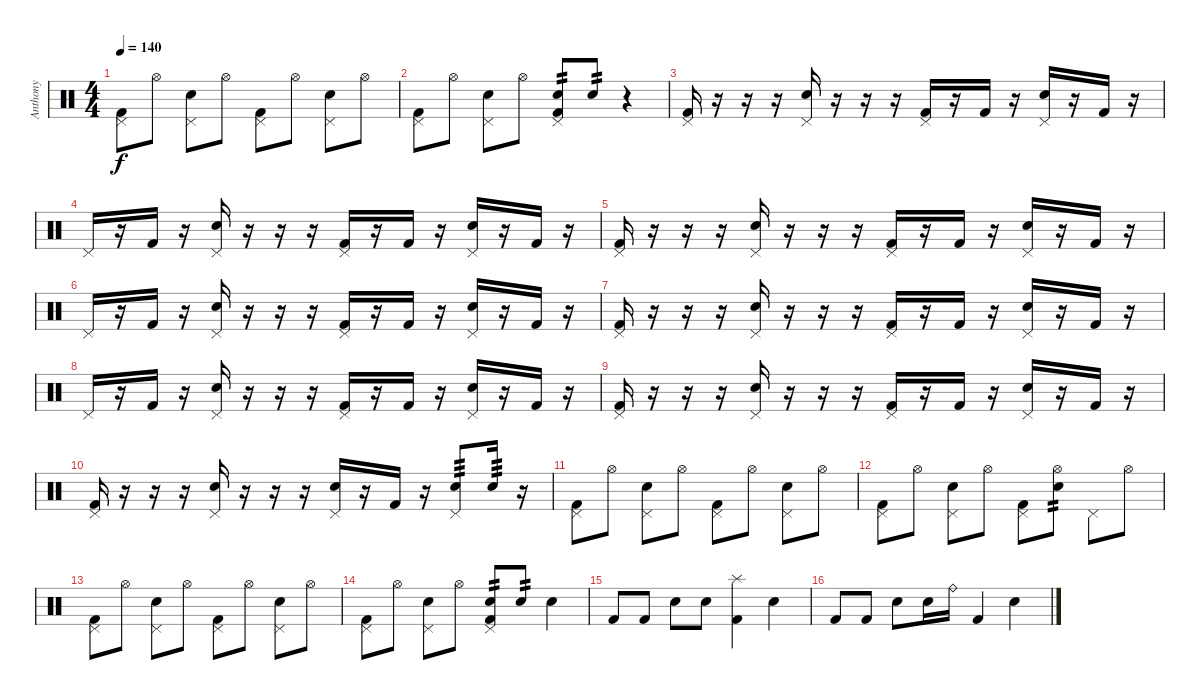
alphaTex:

\track ("Anthony" "Anthony") {instrument percussion}
\staff {score}
\articulation defaults
\ts (4 4)
\tempo 140
\clef neutral
\ks c
("Pedal Hi-Hat (hit)" "Kick (hit) 2").8{dy f} "Hi-Hat (open)".8 ("Pedal Hi-Hat (hit)" "Snare (hit) 2").8 "Hi-Hat (open)".8 ("Pedal Hi-Hat (hit)" "Kick (hit) 2").8 "Hi-Hat (open)".8 ("Pedal Hi-Hat (hit)" "Snare (hit) 2").8 "Hi-Hat (open)".8 |
("Pedal Hi-Hat (hit)" "Kick (hit) 2").8 "Hi-Hat (open)".8 ("Pedal Hi-Hat (hit)" "Snare (hit) 2").8 "Hi-Hat (open)".8 ("Pedal Hi-Hat (hit)" "Snare (hit) 2" "Kick (hit) 2").8{tp 2} "Snare (hit) 2".8{tp 2} r.4 |
("Pedal Hi-Hat (hit)" "Kick (hit) 2").16 r.16 r.16 r.16 ("Pedal Hi-Hat (hit)" "Snare (hit) 2").16 r.16 r.16 r.16 ("Pedal Hi-Hat (hit)" "Kick (hit) 2").16 r.16 "Kick (hit) 2".16 r.16 ("Pedal Hi-Hat (hit)" "Snare (hit) 2").16 r.16 "Kick (hit) 2".16 r.16 |
"Pedal Hi-Hat (hit)".16 r.16 "Kick (hit) 2".16 r.16 ("Pedal Hi-Hat (hit)" "Snare (hit) 2").16 r.16 r.16 r.16 ("Pedal Hi-Hat (hit)" "Kick (hit) 2").16 r.16 "Kick (hit) 2".16 r.16 ("Pedal Hi-Hat (hit)" "Snare (hit) 2").16 r.16 "Kick (hit) 2".16 r.16 |
("Pedal Hi-Hat (hit)" "Kick (hit) 2").16 r.16 r.16 r.16 ("Pedal Hi-Hat (hit)" "Snare (hit) 2").16 r.16 r.16 r.16 ("Pedal Hi-Hat (hit)" "Kick (hit) 2").16 r.16 "Kick (hit) 2".16 r.16 ("Pedal Hi-Hat (hit)" "Snare (hit) 2").16 r.16 "Kick (hit) 2".16 r.16 |
"Pedal Hi-Hat (hit)".16 r.16 "Kick (hit) 2".16 r.16 ("Pedal Hi-Hat (hit)" "Snare (hit) 2").16 r.16 r.16 r.16 ("Pedal Hi-Hat (hit)" "Kick (hit) 2").16 r.16 "Kick (hit) 2".16 r.16 ("Pedal Hi-Hat (hit)" "Snare (hit) 2").16 r.16 "Kick (hit) 2".16 r.16 |
("Pedal Hi-Hat (hit)" "Kick (hit) 2").16 r.16 r.16 r.16 ("Pedal Hi-Hat (hit)" "Snare (hit) 2").16 r.16 r.16 r.16 ("Pedal Hi-Hat (hit)" "Kick (hit) 2").16 r.16 "Kick (hit) 2".16 r.16 ("Pedal Hi-Hat (hit)" "Snare (hit) 2").16 r.16 "Kick (hit) 2".16 r.16 |
"Pedal Hi-Hat (hit)".16 r.16 "Kick (hit) 2".16 r.16 ("Pedal Hi-Hat (hit)" "Snare (hit) 2").16 r.16 r.16 r.16 ("Pedal Hi-Hat (hit)" "Kick (hit) 2").16 r.16 "Kick (hit) 2".16 r.16 ("Pedal Hi-Hat (hit)" "Snare (hit) 2").16 r.16 "Kick (hit) 2".16 r.16 |
("Pedal Hi-Hat (hit)" "Kick (hit) 2").16 r.16 r.16 r.16 ("Pedal Hi-Hat (hit)" "Snare (hit) 2").16 r.16 r.16 r.16 ("Pedal Hi-Hat (hit)" "Kick (hit) 2").16 r.16 "Kick (hit) 2".16 r.16 ("Pedal Hi-Hat (hit)" "Snare (hit) 2").16 r.16 "Kick (hit) 2".16 r.16 |
("Pedal Hi-Hat (hit)" "Kick (hit) 2").16 r.16 r.16 r.16 ("Pedal Hi-Hat (hit)" "Snare (hit) 2").16 r.16 r.16 r.16 ("Pedal Hi-Hat (hit)" "Snare (hit) 2").16 r.16 "Kick (hit) 2".16 r.16 ("Pedal Hi-Hat (hit)" "Snare (hit) 2").8{tp 3} "Snare (hit) 2".16{tp 3} r.16 |
("Pedal Hi-Hat (hit)" "Kick (hit) 2").8 "Hi-Hat (open)".8 ("Pedal Hi-Hat (hit)" "Snare (hit) 2").8 "Hi-Hat (open)".8 ("Pedal Hi-Hat (hit)" "Kick (hit) 2").8 "Hi-Hat (open)".8 ("Pedal Hi-Hat (hit)" "Snare (hit) 2").8 "Hi-Hat (open)".8 |
("Pedal Hi-Hat (hit)" "Kick (hit) 2").8 "Hi-Hat (open)".8 ("Pedal Hi-Hat (hit)" "Snare (hit) 2").8 "Hi-Hat (open)".8 ("Pedal Hi-Hat (hit)" "Kick (hit) 2").8 ("Hi-Hat (open)" "Snare (hit) 2").8{tp 2} "Pedal Hi-Hat (hit)".8 "Hi-Hat (open)".8 |
("Pedal Hi-Hat (hit)" "Kick (hit) 2").8 "Hi-Hat (open)".8 ("Pedal Hi-Hat (hit)" "Snare (hit) 2").8 "Hi-Hat (open)".8 ("Pedal Hi-Hat (hit)" "Kick (hit) 2").8 "Hi-Hat (open)".8 ("Pedal Hi-Hat (hit)" "Snare (hit) 2").8 "Hi-Hat (open)".8 |
("Pedal Hi-Hat (hit)" "Kick (hit) 2").8 "Hi-Hat (open)".8 ("Pedal Hi-Hat (hit)" "Snare (hit) 2").8 "Hi-Hat (open)".8 ("Pedal Hi-Hat (hit)" "Snare (hit) 2" "Kick (hit) 2").8{tp 2} "Snare (hit) 2".8{tp 2} "Snare (hit) 2".4 |
"Kick (hit) 2".8 "Kick (hit) 2".8 "Snare (hit) 2".8 "Snare (hit) 2".8 ("Splash (hit)" "Kick (hit) 2").4 "Snare (hit) 2".4 |
"Kick (hit) 2".8 "Kick (hit) 2".8 "Snare (hit) 2".8 "Snare (hit) 2".16 "Ride (bell)".16 "Kick (hit) 2".4 "Snare (hit) 2".4
